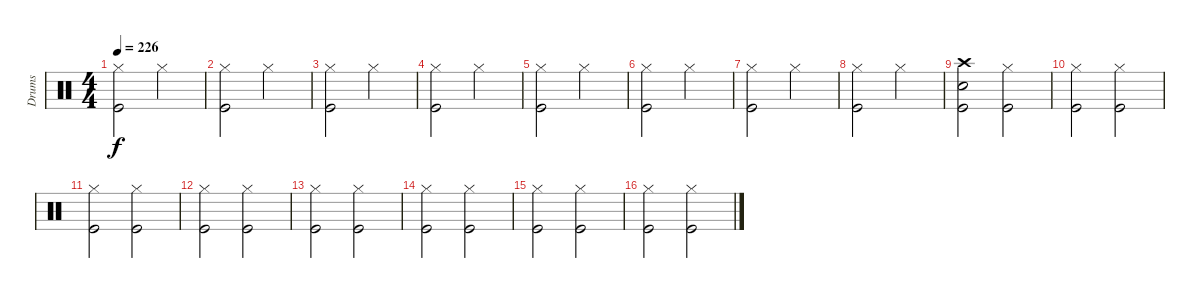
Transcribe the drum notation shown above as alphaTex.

\track ("Drums" "Drums") {instrument percussion}
\staff
\articulation defaults
\ts (4 4)
\tempo 226
\clef neutral
\ks c
("Hi-Hat (closed)" "Kick (hit)").2{dy f} "Hi-Hat (closed)".2 |
("Hi-Hat (closed)" "Kick (hit)").2 "Hi-Hat (closed)".2 |
("Hi-Hat (closed)" "Kick (hit)").2 "Hi-Hat (closed)".2 |
("Hi-Hat (closed)" "Kick (hit)").2 "Hi-Hat (closed)".2 |
("Hi-Hat (closed)" "Kick (hit)").2 "Hi-Hat (closed)".2 |
("Hi-Hat (closed)" "Kick (hit)").2 "Hi-Hat (closed)".2 |
("Hi-Hat (closed)" "Kick (hit)").2 "Hi-Hat (closed)".2 |
("Hi-Hat (closed)" "Kick (hit)").2 "Hi-Hat (closed)".2 |
("Snare (hit) 2" "Crash high (hit)" "Kick (hit)").2 ("Hi-Hat (closed)" "Kick (hit)").2 |
("Hi-Hat (closed)" "Kick (hit)").2 ("Hi-Hat (closed)" "Kick (hit)").2 |
("Hi-Hat (closed)" "Kick (hit)").2 ("Hi-Hat (closed)" "Kick (hit)").2 |
("Hi-Hat (closed)" "Kick (hit)").2 ("Hi-Hat (closed)" "Kick (hit)").2 |
("Hi-Hat (closed)" "Kick (hit)").2 ("Hi-Hat (closed)" "Kick (hit)").2 |
("Hi-Hat (closed)" "Kick (hit)").2 ("Hi-Hat (closed)" "Kick (hit)").2 |
("Hi-Hat (closed)" "Kick (hit)").2 ("Hi-Hat (closed)" "Kick (hit)").2 |
("Hi-Hat (closed)" "Kick (hit)").2 ("Hi-Hat (closed)" "Kick (hit)").2
